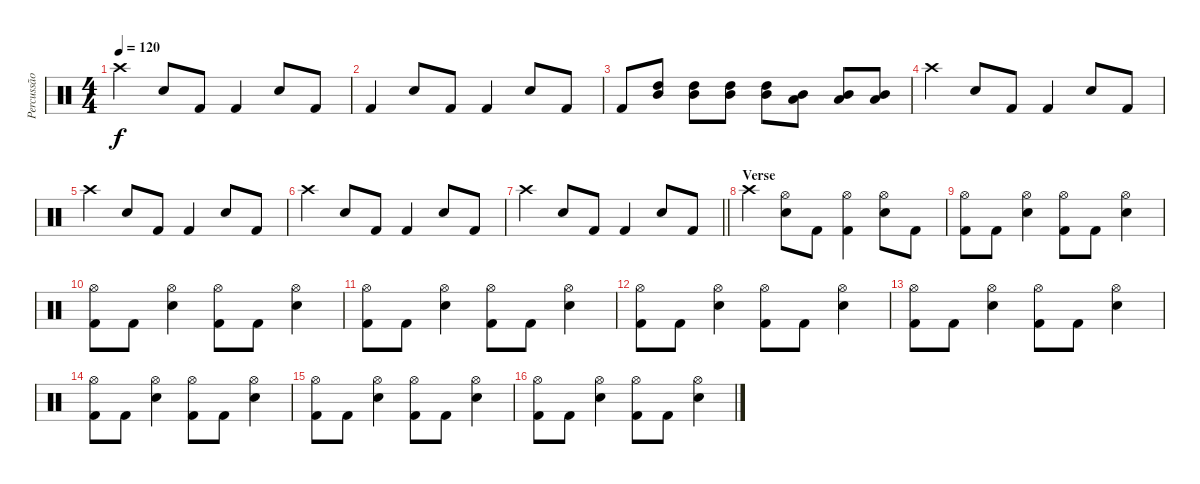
\track ("Percussão" "Percussão") {instrument percussion}
\staff {score}
\articulation defaults
\ts (4 4)
\tempo 120
\clef neutral
\ks c "Crash high (hit)".4{dy f} "Snare (hit) 2".8 "Kick (hit) 2".8 "Kick (hit) 2".4 "Snare (hit) 2".8 "Kick (hit) 2".8
|
"Kick (hit) 2".4 "Snare (hit) 2".8 "Kick (hit) 2".8 "Kick (hit) 2".4 "Snare (hit) 2".8 "Kick (hit) 2".8 |
"Kick (hit) 2".8 ("High Tom (hit)" "Mid Tom (hit)").8 ("High Tom (hit)" "Mid Tom (hit)").8 ("High Tom (hit)" "Mid Tom (hit)").8 ("High Tom (hit)" "Mid Tom (hit)").8 ("Mid Tom (hit)" "Low Tom (hit)").8 ("Mid Tom (hit)" "Low Tom (hit)").8 ("Mid Tom (hit)" "Low Tom (hit)").8 |
"Crash high (hit)".4 "Snare (hit) 2".8 "Kick (hit) 2".8 "Kick (hit) 2".4 "Snare (hit) 2".8 "Kick (hit) 2".8 |
"Crash high (hit)".4 "Snare (hit) 2".8 "Kick (hit) 2".8 "Kick (hit) 2".4 "Snare (hit) 2".8 "Kick (hit) 2".8 |
"Crash high (hit)".4 "Snare (hit) 2".8 "Kick (hit) 2".8 "Kick (hit) 2".4 "Snare (hit) 2".8 "Kick (hit) 2".8 |
\barLineRight lightlight "Crash high (hit)".4 "Snare (hit) 2".8 "Kick (hit) 2".8 "Kick (hit) 2".4 "Snare (hit) 2".8 "Kick (hit) 2".8
|
\section ("" "Verse")
"Crash high (hit)".4 ("Hi-Hat (open)" "Snare (hit) 2").8 "Kick (hit) 2".8 ("Hi-Hat (open)" "Kick (hit) 2").4 ("Hi-Hat (open)" "Snare (hit) 2").8 "Kick (hit) 2".8 |
("Hi-Hat (open)" "Kick (hit) 2").8 "Kick (hit) 2".8 ("Hi-Hat (open)" "Snare (hit) 2").4 ("Hi-Hat (open)" "Kick (hit) 2").8 "Kick (hit) 2".8 ("Hi-Hat (open)" "Snare (hit) 2").4 |
("Hi-Hat (open)" "Kick (hit) 2").8 "Kick (hit) 2".8 ("Hi-Hat (open)" "Snare (hit) 2").4 ("Hi-Hat (open)" "Kick (hit) 2").8 "Kick (hit) 2".8 ("Hi-Hat (open)" "Snare (hit) 2").4 |
("Hi-Hat (open)" "Kick (hit) 2").8 "Kick (hit) 2".8 ("Hi-Hat (open)" "Snare (hit) 2").4 ("Hi-Hat (open)" "Kick (hit) 2").8 "Kick (hit) 2".8 ("Hi-Hat (open)" "Snare (hit) 2").4 |
("Hi-Hat (open)" "Kick (hit) 2").8 "Kick (hit) 2".8 ("Hi-Hat (open)" "Snare (hit) 2").4 ("Hi-Hat (open)" "Kick (hit) 2").8 "Kick (hit) 2".8 ("Hi-Hat (open)" "Snare (hit) 2").4 |
("Hi-Hat (open)" "Kick (hit) 2").8 "Kick (hit) 2".8 ("Hi-Hat (open)" "Snare (hit) 2").4 ("Hi-Hat (open)" "Kick (hit) 2").8 "Kick (hit) 2".8 ("Hi-Hat (open)" "Snare (hit) 2").4 |
("Hi-Hat (open)" "Kick (hit) 2").8 "Kick (hit) 2".8 ("Hi-Hat (open)" "Snare (hit) 2").4 ("Hi-Hat (open)" "Kick (hit) 2").8 "Kick (hit) 2".8 ("Hi-Hat (open)" "Snare (hit) 2").4 |
("Hi-Hat (open)" "Kick (hit) 2").8 "Kick (hit) 2".8 ("Hi-Hat (open)" "Snare (hit) 2").4 ("Hi-Hat (open)" "Kick (hit) 2").8 "Kick (hit) 2".8 ("Hi-Hat (open)" "Snare (hit) 2").4 |
("Hi-Hat (open)" "Kick (hit) 2").8 "Kick (hit) 2".8 ("Hi-Hat (open)" "Snare (hit) 2").4 ("Hi-Hat (open)" "Kick (hit) 2").8 "Kick (hit) 2".8 ("Hi-Hat (open)" "Snare (hit) 2").4
